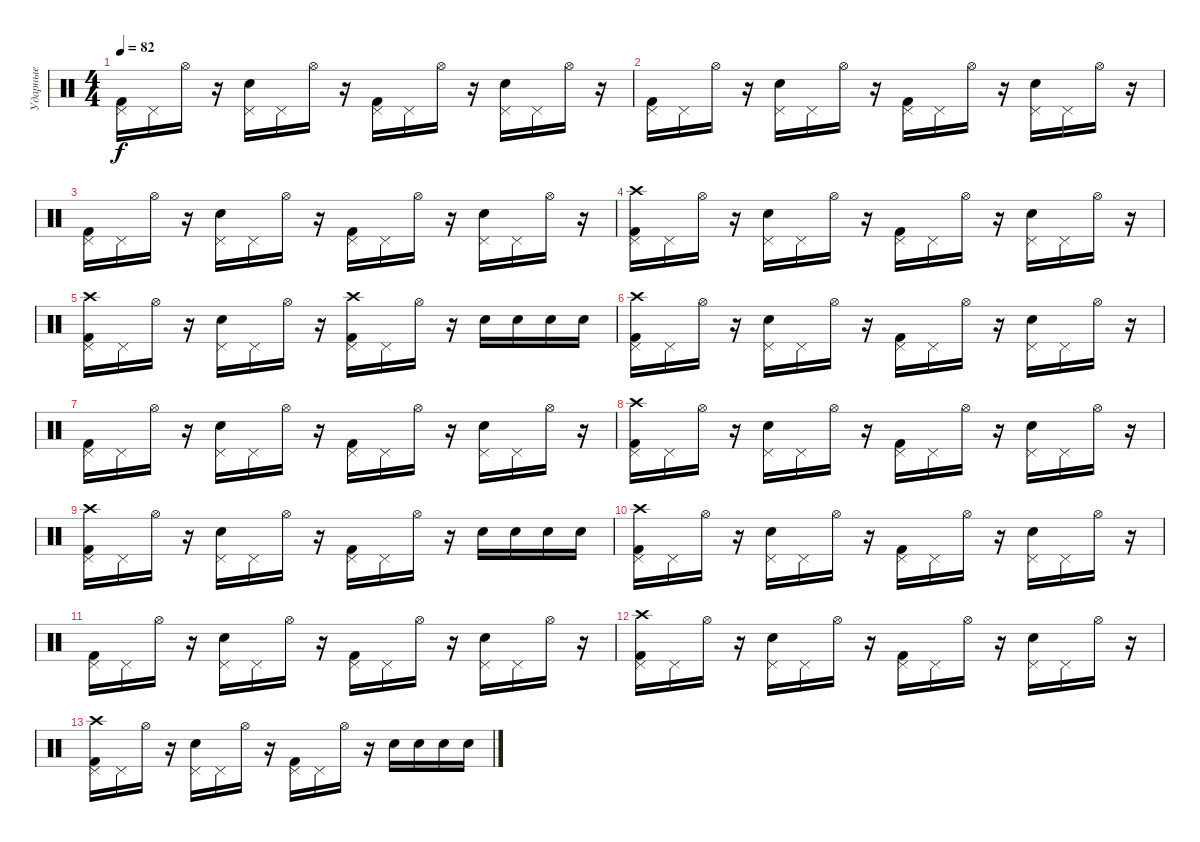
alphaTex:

\track ("Ударные" "Ударные") {instrument percussion}
\staff {score}
\articulation defaults
\ts (4 4)
\tempo 82
\clef neutral
\ks c
("Pedal Hi-Hat (hit)" "Kick (hit) 2").16{dy f} "Pedal Hi-Hat (hit)".16 "Hi-Hat (open)".16 r.16 ("Pedal Hi-Hat (hit)" "Electric Snare (hit)").16 "Pedal Hi-Hat (hit)".16 "Hi-Hat (open)".16 r.16 ("Pedal Hi-Hat (hit)" "Kick (hit) 2").16 "Pedal Hi-Hat (hit)".16 "Hi-Hat (open)".16 r.16 ("Pedal Hi-Hat (hit)" "Electric Snare (hit)").16 "Pedal Hi-Hat (hit)".16 "Hi-Hat (open)".16 r.16 |
("Pedal Hi-Hat (hit)" "Kick (hit) 2").16 "Pedal Hi-Hat (hit)".16 "Hi-Hat (open)".16 r.16 ("Pedal Hi-Hat (hit)" "Electric Snare (hit)").16 "Pedal Hi-Hat (hit)".16 "Hi-Hat (open)".16 r.16 ("Pedal Hi-Hat (hit)" "Kick (hit) 2").16 "Pedal Hi-Hat (hit)".16 "Hi-Hat (open)".16 r.16 ("Pedal Hi-Hat (hit)" "Electric Snare (hit)").16 "Pedal Hi-Hat (hit)".16 "Hi-Hat (open)".16 r.16 |
("Pedal Hi-Hat (hit)" "Kick (hit) 2").16 "Pedal Hi-Hat (hit)".16 "Hi-Hat (open)".16 r.16 ("Pedal Hi-Hat (hit)" "Electric Snare (hit)").16 "Pedal Hi-Hat (hit)".16 "Hi-Hat (open)".16 r.16 ("Pedal Hi-Hat (hit)" "Kick (hit) 2").16 "Pedal Hi-Hat (hit)".16 "Hi-Hat (open)".16 r.16 ("Pedal Hi-Hat (hit)" "Electric Snare (hit)").16 "Pedal Hi-Hat (hit)".16 "Hi-Hat (open)".16 r.16 |
("Crash high (hit)" "Pedal Hi-Hat (hit)" "Kick (hit) 2").16 "Pedal Hi-Hat (hit)".16 "Hi-Hat (open)".16 r.16 ("Pedal Hi-Hat (hit)" "Electric Snare (hit)").16 "Pedal Hi-Hat (hit)".16 "Hi-Hat (open)".16 r.16 ("Pedal Hi-Hat (hit)" "Kick (hit) 2").16 "Pedal Hi-Hat (hit)".16 "Hi-Hat (open)".16 r.16 ("Pedal Hi-Hat (hit)" "Electric Snare (hit)").16 "Pedal Hi-Hat (hit)".16 "Hi-Hat (open)".16 r.16 |
("Crash high (hit)" "Pedal Hi-Hat (hit)" "Kick (hit) 2").16 "Pedal Hi-Hat (hit)".16 "Hi-Hat (open)".16 r.16 ("Pedal Hi-Hat (hit)" "Electric Snare (hit)").16 "Pedal Hi-Hat (hit)".16 "Hi-Hat (open)".16 r.16 ("Crash high (hit)" "Pedal Hi-Hat (hit)" "Kick (hit) 2").16 "Pedal Hi-Hat (hit)".16 "Hi-Hat (open)".16 r.16 "Electric Snare (hit)".16 "Electric Snare (hit)".16 "Electric Snare (hit)".16 "Electric Snare (hit)".16 |
("Crash high (hit)" "Pedal Hi-Hat (hit)" "Kick (hit) 2").16 "Pedal Hi-Hat (hit)".16 "Hi-Hat (open)".16 r.16 ("Pedal Hi-Hat (hit)" "Electric Snare (hit)").16 "Pedal Hi-Hat (hit)".16 "Hi-Hat (open)".16 r.16 ("Pedal Hi-Hat (hit)" "Kick (hit) 2").16 "Pedal Hi-Hat (hit)".16 "Hi-Hat (open)".16 r.16 ("Pedal Hi-Hat (hit)" "Electric Snare (hit)").16 "Pedal Hi-Hat (hit)".16 "Hi-Hat (open)".16 r.16 |
("Pedal Hi-Hat (hit)" "Kick (hit) 2").16 "Pedal Hi-Hat (hit)".16 "Hi-Hat (open)".16 r.16 ("Pedal Hi-Hat (hit)" "Electric Snare (hit)").16 "Pedal Hi-Hat (hit)".16 "Hi-Hat (open)".16 r.16 ("Pedal Hi-Hat (hit)" "Kick (hit) 2").16 "Pedal Hi-Hat (hit)".16 "Hi-Hat (open)".16 r.16 ("Pedal Hi-Hat (hit)" "Electric Snare (hit)").16 "Pedal Hi-Hat (hit)".16 "Hi-Hat (open)".16 r.16 |
("Crash high (hit)" "Pedal Hi-Hat (hit)" "Kick (hit) 2").16 "Pedal Hi-Hat (hit)".16 "Hi-Hat (open)".16 r.16 ("Pedal Hi-Hat (hit)" "Electric Snare (hit)").16 "Pedal Hi-Hat (hit)".16 "Hi-Hat (open)".16 r.16 ("Pedal Hi-Hat (hit)" "Kick (hit) 2").16 "Pedal Hi-Hat (hit)".16 "Hi-Hat (open)".16 r.16 ("Pedal Hi-Hat (hit)" "Electric Snare (hit)").16 "Pedal Hi-Hat (hit)".16 "Hi-Hat (open)".16 r.16 |
("Crash high (hit)" "Pedal Hi-Hat (hit)" "Kick (hit) 2").16 "Pedal Hi-Hat (hit)".16 "Hi-Hat (open)".16 r.16 ("Pedal Hi-Hat (hit)" "Electric Snare (hit)").16 "Pedal Hi-Hat (hit)".16 "Hi-Hat (open)".16 r.16 ("Pedal Hi-Hat (hit)" "Kick (hit) 2").16 "Pedal Hi-Hat (hit)".16 "Hi-Hat (open)".16 r.16 "Electric Snare (hit)".16 "Electric Snare (hit)".16 "Electric Snare (hit)".16 "Electric Snare (hit)".16 |
("Crash high (hit)" "Pedal Hi-Hat (hit)" "Kick (hit) 2").16 "Pedal Hi-Hat (hit)".16 "Hi-Hat (open)".16 r.16 ("Pedal Hi-Hat (hit)" "Electric Snare (hit)").16 "Pedal Hi-Hat (hit)".16 "Hi-Hat (open)".16 r.16 ("Pedal Hi-Hat (hit)" "Kick (hit) 2").16 "Pedal Hi-Hat (hit)".16 "Hi-Hat (open)".16 r.16 ("Pedal Hi-Hat (hit)" "Electric Snare (hit)").16 "Pedal Hi-Hat (hit)".16 "Hi-Hat (open)".16 r.16 |
("Pedal Hi-Hat (hit)" "Kick (hit) 2").16 "Pedal Hi-Hat (hit)".16 "Hi-Hat (open)".16 r.16 ("Pedal Hi-Hat (hit)" "Electric Snare (hit)").16 "Pedal Hi-Hat (hit)".16 "Hi-Hat (open)".16 r.16 ("Pedal Hi-Hat (hit)" "Kick (hit) 2").16 "Pedal Hi-Hat (hit)".16 "Hi-Hat (open)".16 r.16 ("Pedal Hi-Hat (hit)" "Electric Snare (hit)").16 "Pedal Hi-Hat (hit)".16 "Hi-Hat (open)".16 r.16 |
("Crash high (hit)" "Pedal Hi-Hat (hit)" "Kick (hit) 2").16 "Pedal Hi-Hat (hit)".16 "Hi-Hat (open)".16 r.16 ("Pedal Hi-Hat (hit)" "Electric Snare (hit)").16 "Pedal Hi-Hat (hit)".16 "Hi-Hat (open)".16 r.16 ("Pedal Hi-Hat (hit)" "Kick (hit) 2").16 "Pedal Hi-Hat (hit)".16 "Hi-Hat (open)".16 r.16 ("Pedal Hi-Hat (hit)" "Electric Snare (hit)").16 "Pedal Hi-Hat (hit)".16 "Hi-Hat (open)".16 r.16 |
("Crash high (hit)" "Pedal Hi-Hat (hit)" "Kick (hit) 2").16 "Pedal Hi-Hat (hit)".16 "Hi-Hat (open)".16 r.16 ("Pedal Hi-Hat (hit)" "Electric Snare (hit)").16 "Pedal Hi-Hat (hit)".16 "Hi-Hat (open)".16 r.16 ("Pedal Hi-Hat (hit)" "Kick (hit) 2").16 "Pedal Hi-Hat (hit)".16 "Hi-Hat (open)".16 r.16 "Electric Snare (hit)".16 "Electric Snare (hit)".16 "Electric Snare (hit)".16 "Electric Snare (hit)".16
